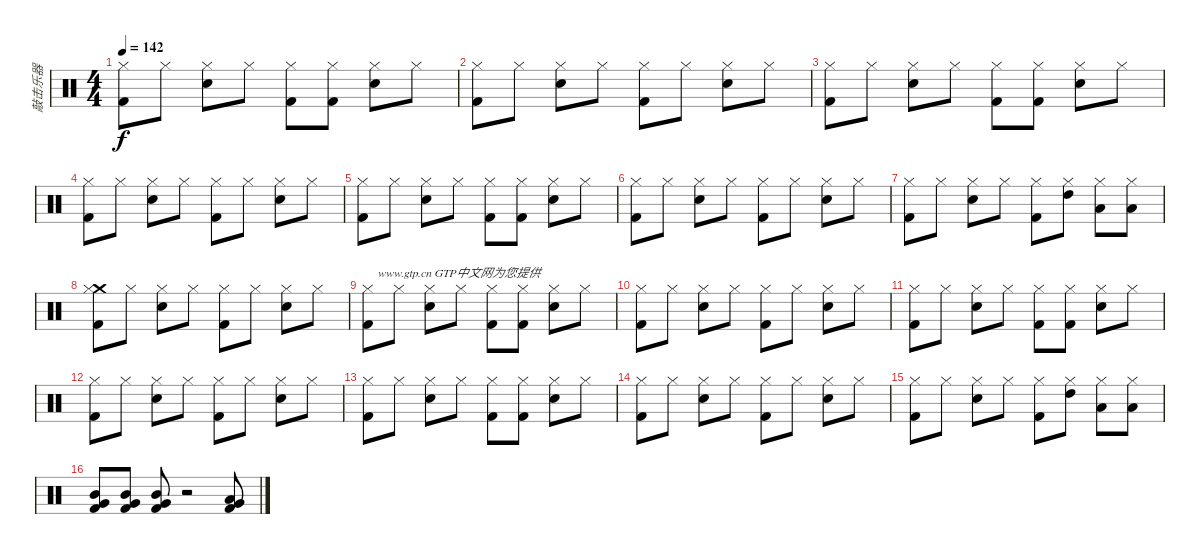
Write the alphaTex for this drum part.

\track ("敲击乐器" "敲击乐器") {instrument percussion}
\staff {score}
\articulation defaults
\ts (4 4)
\tempo 142
\clef neutral
\ks c
("Hi-Hat (closed)" "Kick (hit) 2").8{dy f} "Hi-Hat (closed)".8 ("Snare (hit) 2" "Hi-Hat (closed)").8 "Hi-Hat (closed)".8 ("Hi-Hat (closed)" "Kick (hit) 2").8 ("Hi-Hat (closed)" "Kick (hit) 2").8 ("Snare (hit) 2" "Hi-Hat (closed)").8 "Hi-Hat (closed)".8 |
("Hi-Hat (closed)" "Kick (hit) 2").8 "Hi-Hat (closed)".8 ("Snare (hit) 2" "Hi-Hat (closed)").8 "Hi-Hat (closed)".8 ("Hi-Hat (closed)" "Kick (hit) 2").8 "Hi-Hat (closed)".8 ("Snare (hit) 2" "Hi-Hat (closed)").8 "Hi-Hat (closed)".8 |
("Hi-Hat (closed)" "Kick (hit) 2").8 "Hi-Hat (closed)".8 ("Snare (hit) 2" "Hi-Hat (closed)").8 "Hi-Hat (closed)".8 ("Hi-Hat (closed)" "Kick (hit) 2").8 ("Hi-Hat (closed)" "Kick (hit) 2").8 ("Snare (hit) 2" "Hi-Hat (closed)").8 "Hi-Hat (closed)".8 |
("Hi-Hat (closed)" "Kick (hit) 2").8 "Hi-Hat (closed)".8 ("Snare (hit) 2" "Hi-Hat (closed)").8 "Hi-Hat (closed)".8 ("Hi-Hat (closed)" "Kick (hit) 2").8 "Hi-Hat (closed)".8 ("Snare (hit) 2" "Hi-Hat (closed)").8 "Hi-Hat (closed)".8 |
("Hi-Hat (closed)" "Kick (hit) 2").8 "Hi-Hat (closed)".8 ("Snare (hit) 2" "Hi-Hat (closed)").8 "Hi-Hat (closed)".8 ("Hi-Hat (closed)" "Kick (hit) 2").8 ("Hi-Hat (closed)" "Kick (hit) 2").8 ("Snare (hit) 2" "Hi-Hat (closed)").8 "Hi-Hat (closed)".8 |
("Hi-Hat (closed)" "Kick (hit) 2").8 "Hi-Hat (closed)".8 ("Snare (hit) 2" "Hi-Hat (closed)").8 "Hi-Hat (closed)".8 ("Hi-Hat (closed)" "Kick (hit) 2").8 "Hi-Hat (closed)".8 ("Snare (hit) 2" "Hi-Hat (closed)").8 "Hi-Hat (closed)".8 |
("Hi-Hat (closed)" "Kick (hit) 2").8 "Hi-Hat (closed)".8 ("Snare (hit) 2" "Hi-Hat (closed)").8 "Hi-Hat (closed)".8 ("Hi-Hat (closed)" "Kick (hit) 2").8 ("High Tom (hit)" "Hi-Hat (closed)").8 ("Low Tom (hit)" "Hi-Hat (closed)").8 ("Low Floor Tom (hit)" "Hi-Hat (closed)").8 |
("Crash medium (hit)" "Hi-Hat (closed)" "Kick (hit) 2").8 "Hi-Hat (closed)".8 ("Snare (hit) 2" "Hi-Hat (closed)").8 "Hi-Hat (closed)".8 ("Hi-Hat (closed)" "Kick (hit) 2").8 "Hi-Hat (closed)".8 ("Snare (hit) 2" "Hi-Hat (closed)").8 "Hi-Hat (closed)".8{txt "                    www.gtp.cn GTP中文网为您提供"} |
("Hi-Hat (closed)" "Kick (hit) 2").8 "Hi-Hat (closed)".8 ("Snare (hit) 2" "Hi-Hat (closed)").8 "Hi-Hat (closed)".8 ("Hi-Hat (closed)" "Kick (hit) 2").8 ("Hi-Hat (closed)" "Kick (hit) 2").8 ("Snare (hit) 2" "Hi-Hat (closed)").8 "Hi-Hat (closed)".8 |
("Hi-Hat (closed)" "Kick (hit) 2").8 "Hi-Hat (closed)".8 ("Snare (hit) 2" "Hi-Hat (closed)").8 "Hi-Hat (closed)".8 ("Hi-Hat (closed)" "Kick (hit) 2").8 "Hi-Hat (closed)".8 ("Snare (hit) 2" "Hi-Hat (closed)").8 "Hi-Hat (closed)".8 |
("Hi-Hat (closed)" "Kick (hit) 2").8 "Hi-Hat (closed)".8 ("Snare (hit) 2" "Hi-Hat (closed)").8 "Hi-Hat (closed)".8 ("Hi-Hat (closed)" "Kick (hit) 2").8 ("Hi-Hat (closed)" "Kick (hit) 2").8 ("Snare (hit) 2" "Hi-Hat (closed)").8 "Hi-Hat (closed)".8 |
("Hi-Hat (closed)" "Kick (hit) 2").8 "Hi-Hat (closed)".8 ("Snare (hit) 2" "Hi-Hat (closed)").8 "Hi-Hat (closed)".8 ("Hi-Hat (closed)" "Kick (hit) 2").8 "Hi-Hat (closed)".8 ("Snare (hit) 2" "Hi-Hat (closed)").8 "Hi-Hat (closed)".8 |
("Hi-Hat (closed)" "Kick (hit) 2").8 "Hi-Hat (closed)".8 ("Snare (hit) 2" "Hi-Hat (closed)").8 "Hi-Hat (closed)".8 ("Hi-Hat (closed)" "Kick (hit) 2").8 ("Hi-Hat (closed)" "Kick (hit) 2").8 ("Snare (hit) 2" "Hi-Hat (closed)").8 "Hi-Hat (closed)".8 |
("Hi-Hat (closed)" "Kick (hit) 2").8 "Hi-Hat (closed)".8 ("Snare (hit) 2" "Hi-Hat (closed)").8 "Hi-Hat (closed)".8 ("Hi-Hat (closed)" "Kick (hit) 2").8 "Hi-Hat (closed)".8 ("Snare (hit) 2" "Hi-Hat (closed)").8 "Hi-Hat (closed)".8 |
("Hi-Hat (closed)" "Kick (hit) 2").8 "Hi-Hat (closed)".8 ("Snare (hit) 2" "Hi-Hat (closed)").8 "Hi-Hat (closed)".8 ("Hi-Hat (closed)" "Kick (hit) 2").8 ("High Tom (hit)" "Hi-Hat (closed)").8 ("Low Tom (hit)" "Hi-Hat (closed)").8 ("Low Floor Tom (hit)" "Hi-Hat (closed)").8 |
("Mid Tom (hit)" "Very Low Tom (hit)" "Kick (hit) 2").8 ("Mid Tom (hit)" "Very Low Tom (hit)" "Kick (hit) 2").8 ("Mid Tom (hit)" "Very Low Tom (hit)" "Kick (hit) 2").8 r.2 ("Low Tom (hit)" "Very Low Tom (hit)" "Kick (hit) 2").8
